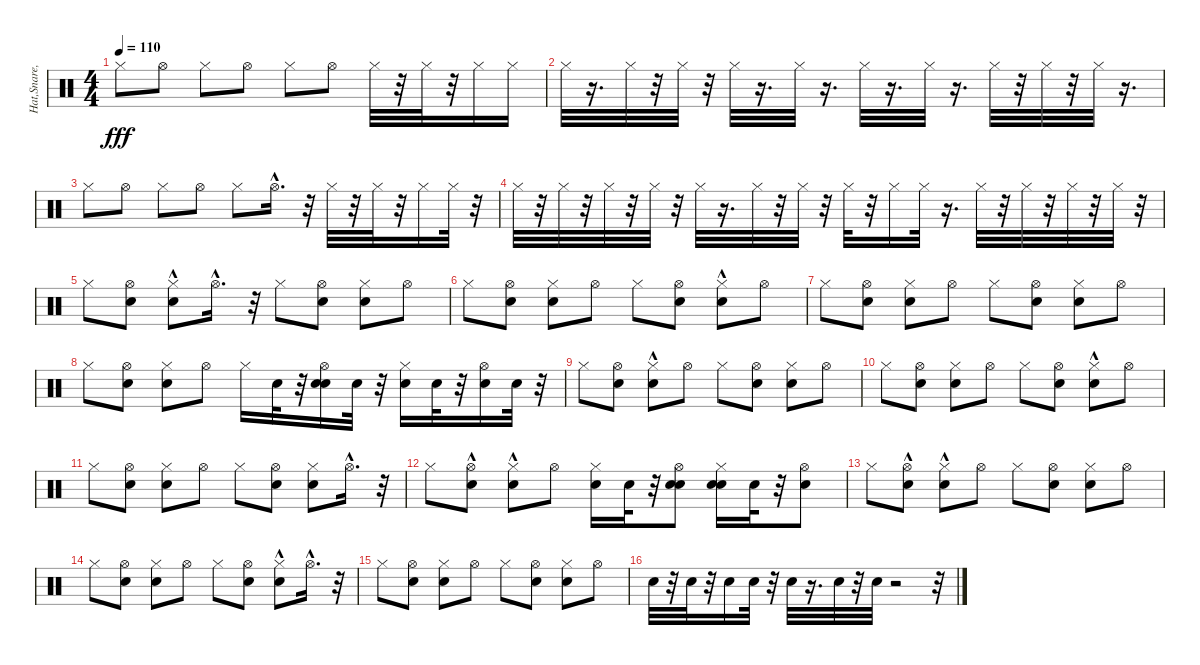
\track ("Hat,Snare,Clap" "Hat,Snare,") {instrument percussion}
\staff {score}
\articulation defaults
\ts (4 4)
\tempo 110
\clef neutral
\ks c "Hi-Hat (closed)".8{dy fff} "Hi-Hat (open)".8 "Hi-Hat (closed)".8 "Hi-Hat (open)".8 "Hi-Hat (closed)".8 "Hi-Hat (open)".8 "Hi-Hat (closed)".32
r.32 "Hi-Hat (closed)".32 r.32 "Hi-Hat (closed)".16 "Hi-Hat (closed)".16 |
"Hi-Hat (closed)".32 r.16{d} "Hi-Hat (closed)".32 r.32 "Hi-Hat (closed)".32 r.32 "Hi-Hat (closed)".32 r.16{d} "Hi-Hat (closed)".32 r.16{d} "Hi-Hat (closed)".32 r.16{d} "Hi-Hat (closed)".32 r.16{d} "Hi-Hat (closed)".32 r.32 "Hi-Hat (closed)".32 r.32 "Hi-Hat (closed)".32 r.16{d} |
"Hi-Hat (closed)".8 "Hi-Hat (open)".8 "Hi-Hat (closed)".8 "Hi-Hat (open)".8 "Hi-Hat (closed)".8 "Hi-Hat (open)"{hac}.16{d} r.32 "Hi-Hat (closed)".32 r.32 "Hi-Hat (closed)".32 r.32 "Hi-Hat (closed)".16 "Hi-Hat (closed)".32 r.32 |
"Hi-Hat (closed)".32 r.32 "Hi-Hat (closed)".32 r.32 "Hi-Hat (closed)".32 r.32 "Hi-Hat (closed)".32 r.32 "Hi-Hat (closed)".32 r.16{d} "Hi-Hat (closed)".32 r.32 "Hi-Hat (closed)".32 r.32 "Hi-Hat (closed)".32 r.32 "Hi-Hat (closed)".16 "Hi-Hat (closed)".32 r.16{d} "Hi-Hat (closed)".32 r.32 "Hi-Hat (closed)".32 r.32 "Hi-Hat (closed)".32 r.32 "Hi-Hat (closed)".32 r.32 |
"Hi-Hat (closed)".8 ("Hi-Hat (open)" "Electric Snare (hit)").8 ("Hi-Hat (closed)" "Hand Clap (hit)"{hac}).8 "Hi-Hat (open)"{hac}.16{d} r.32 "Hi-Hat (closed)".8 ("Hi-Hat (open)" "Electric Snare (hit)").8 ("Hi-Hat (closed)" "Hand Clap (hit)").8 "Hi-Hat (open)".8 |
"Hi-Hat (closed)".8 ("Hi-Hat (open)" "Electric Snare (hit)").8 ("Hi-Hat (closed)" "Hand Clap (hit)").8 "Hi-Hat (open)".8 "Hi-Hat (closed)".8 ("Hi-Hat (open)" "Electric Snare (hit)").8 ("Hi-Hat (closed)" "Hand Clap (hit)"{hac}).8 "Hi-Hat (open)".8 |
"Hi-Hat (closed)".8 ("Hi-Hat (open)" "Electric Snare (hit)").8 ("Hi-Hat (closed)" "Hand Clap (hit)").8 "Hi-Hat (open)".8 "Hi-Hat (closed)".8 ("Hi-Hat (open)" "Electric Snare (hit)").8 ("Hi-Hat (closed)" "Hand Clap (hit)").8 "Hi-Hat (open)".8 |
"Hi-Hat (closed)".8 ("Hi-Hat (open)" "Electric Snare (hit)").8 ("Hi-Hat (closed)" "Hand Clap (hit)").8 "Hi-Hat (open)".8 "Hi-Hat (closed)".16 "Electric Snare (hit)".32 r.32 ("Hi-Hat (open)" "Electric Snare (hit)" "Electric Snare (hit)").16 "Electric Snare (hit)".32 r.32 ("Hi-Hat (closed)" "Hand Clap (hit)").16 "Electric Snare (hit)".32 r.32 ("Hi-Hat (open)" "Electric Snare (hit)").16 "Electric Snare (hit)".32 r.32 |
"Hi-Hat (closed)".8 ("Hi-Hat (open)" "Electric Snare (hit)").8 ("Hi-Hat (closed)" "Hand Clap (hit)"{hac}).8 "Hi-Hat (open)".8 "Hi-Hat (closed)".8 ("Hi-Hat (open)" "Electric Snare (hit)").8 ("Hi-Hat (closed)" "Hand Clap (hit)").8 "Hi-Hat (open)".8 |
"Hi-Hat (closed)".8 ("Hi-Hat (open)" "Electric Snare (hit)").8 ("Hi-Hat (closed)" "Hand Clap (hit)").8 "Hi-Hat (open)".8 "Hi-Hat (closed)".8 ("Hi-Hat (open)" "Electric Snare (hit)").8 ("Hi-Hat (closed)" "Hand Clap (hit)"{hac}).8 "Hi-Hat (open)".8 |
"Hi-Hat (closed)".8 ("Hi-Hat (open)" "Electric Snare (hit)").8 ("Hi-Hat (closed)" "Hand Clap (hit)").8 "Hi-Hat (open)".8 "Hi-Hat (closed)".8 ("Hi-Hat (open)" "Electric Snare (hit)").8 ("Hi-Hat (closed)" "Hand Clap (hit)").8 "Hi-Hat (open)"{hac}.16{d} r.32 |
"Hi-Hat (closed)".8 ("Hi-Hat (open)" "Electric Snare (hit)"{hac}).8 ("Hi-Hat (closed)" "Hand Clap (hit)"{hac}).8 "Hi-Hat (open)".8 ("Hi-Hat (closed)" "Electric Snare (hit)").16 "Electric Snare (hit)".32 r.32 ("Hi-Hat (open)" "Electric Snare (hit)" "Electric Snare (hit)").8 ("Hi-Hat (closed)" "Electric Snare (hit)" "Hand Clap (hit)").16 "Electric Snare (hit)".32 r.32 ("Hi-Hat (open)" "Electric Snare (hit)").8 |
"Hi-Hat (closed)".8 ("Hi-Hat (open)" "Electric Snare (hit)"{hac}).8 ("Hi-Hat (closed)" "Hand Clap (hit)"{hac}).8 "Hi-Hat (open)".8 "Hi-Hat (closed)".8 ("Hi-Hat (open)" "Electric Snare (hit)").8 ("Hi-Hat (closed)" "Hand Clap (hit)").8 "Hi-Hat (open)".8 |
"Hi-Hat (closed)".8 ("Hi-Hat (open)" "Electric Snare (hit)").8 ("Hi-Hat (closed)" "Hand Clap (hit)").8 "Hi-Hat (open)".8 "Hi-Hat (closed)".8 ("Hi-Hat (open)" "Electric Snare (hit)").8 ("Hi-Hat (closed)" "Hand Clap (hit)"{hac}).8 "Hi-Hat (open)"{hac}.16{d} r.32 |
"Hi-Hat (closed)".8 ("Hi-Hat (open)" "Electric Snare (hit)").8 ("Hi-Hat (closed)" "Hand Clap (hit)").8 "Hi-Hat (open)".8 "Hi-Hat (closed)".8 ("Hi-Hat (open)" "Electric Snare (hit)").8 ("Hi-Hat (closed)" "Hand Clap (hit)").8 "Hi-Hat (open)".8 |
"Electric Snare (hit)".32 r.32 "Electric Snare (hit)".32 r.32 "Electric Snare (hit)".16 "Electric Snare (hit)".32 r.32 "Electric Snare (hit)".32 r.16{d} "Electric Snare (hit)".32 r.32 "Electric Snare (hit)".32 r.2 r.32
